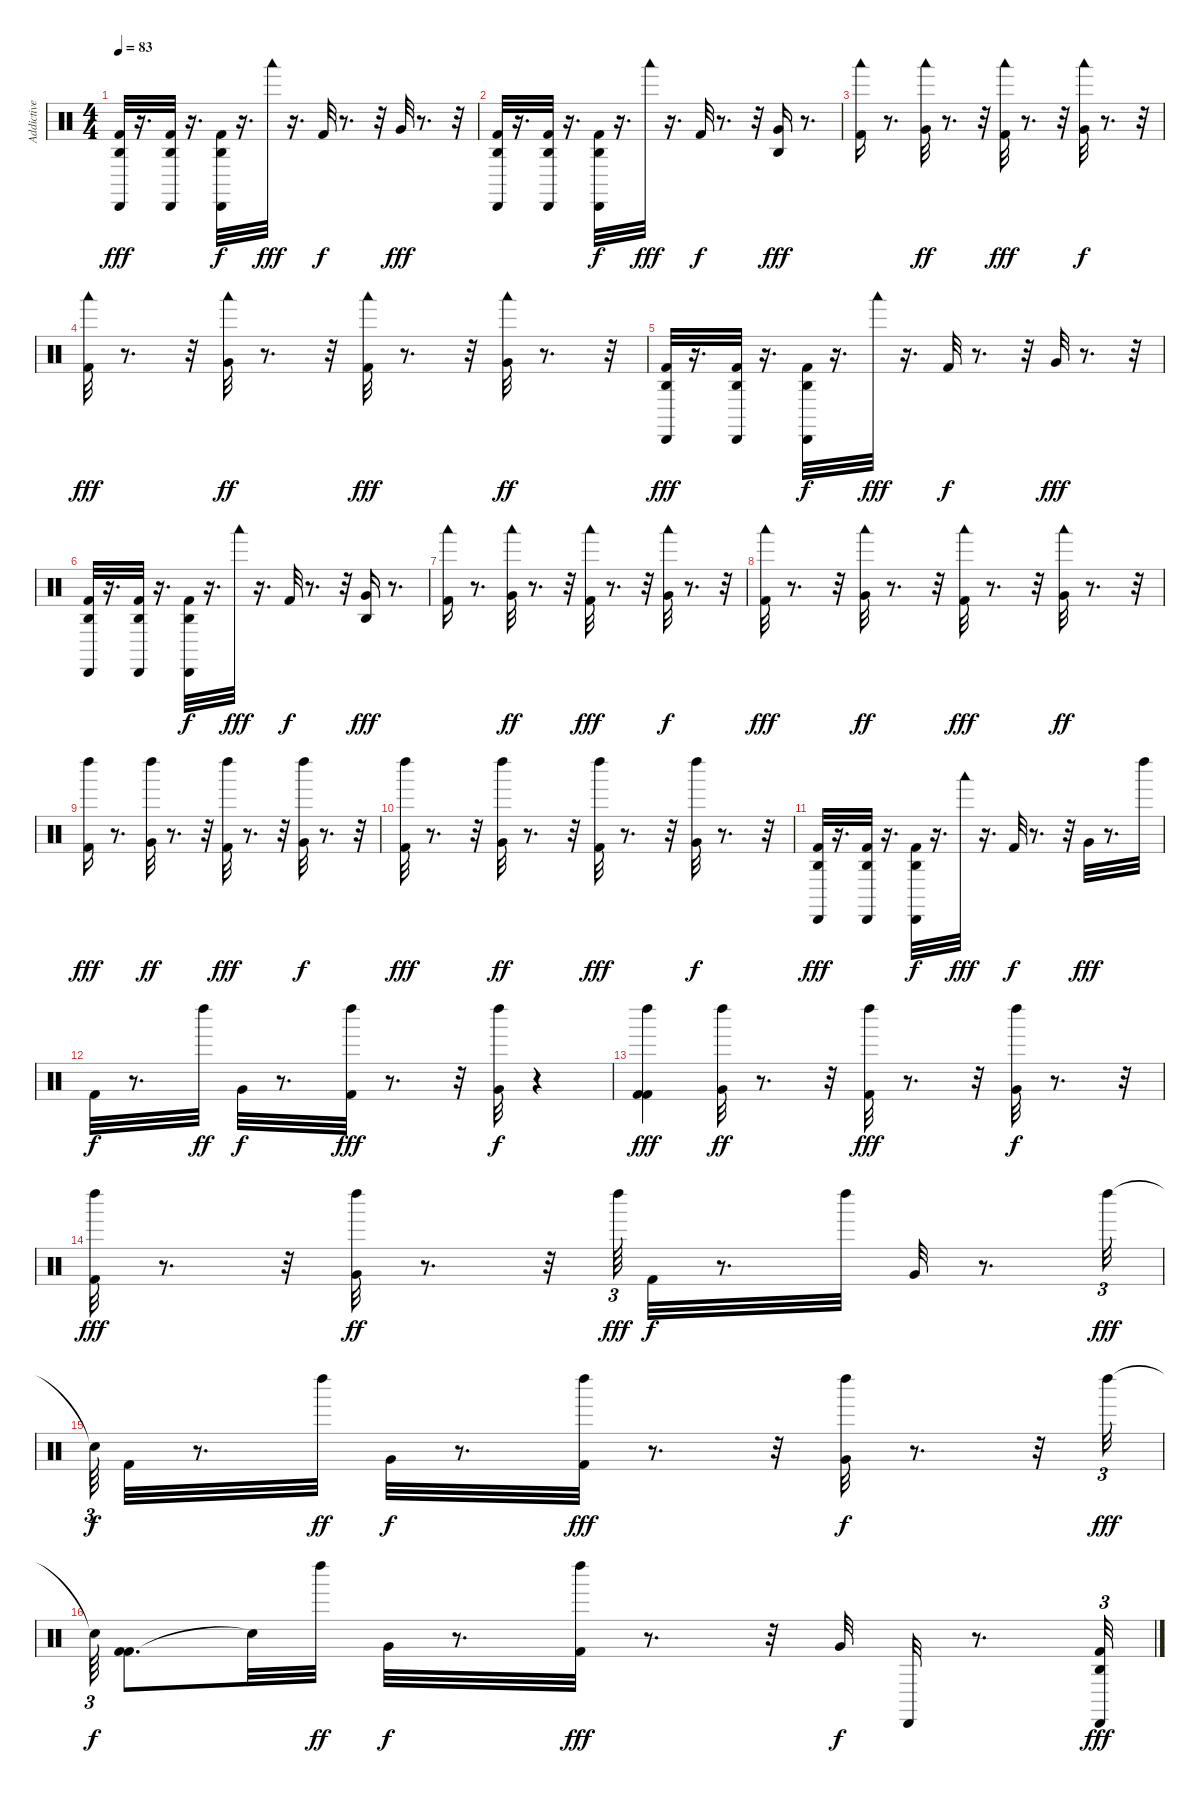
\track ("Addictive Drums 2 01" "Addictive ") {instrument percussion}
\staff {score}
\articulation defaults
\ts (4 4)
\tempo 83
\clef neutral
\ks c
("Kick (hit) 2" "Cabasa (hit)" "Agogo high (hit)").32{dy fff} r.16{d} ("Kick (hit) 2" "Cabasa (hit)" "Agogo high (hit)").32 r.16{d} ("Cabasa (hit)" "Kick (hit) 2" "Agogo high (hit)").32{dy f} r.16{d} "Woodblock low (hit)".32{dy fff} r.16{d} "Kick (hit) 2".32{dy f} r.8{d} r.32 "Very Low Tom (hit)".32{dy fff} r.8{d} r.32 |
("Kick (hit) 2" "Cabasa (hit)" "Agogo high (hit)").32 r.16{d} ("Kick (hit) 2" "Cabasa (hit)" "Agogo high (hit)").32 r.16{d} ("Cabasa (hit)" "Kick (hit) 2" "Agogo high (hit)").32{dy f} r.16{d} "Woodblock low (hit)".32{dy fff} r.16{d} "Kick (hit) 2".32{dy f} r.8{d} r.32 ("Very Low Tom (hit)" "Agogo high (hit)").16{dy fff} r.8{d} |
("Woodblock low (hit)" "Kick (hit) 2").16 r.8{d} ("Woodblock low (hit)" "Very Low Tom (hit)").32{dy ff} r.8{d} r.32 ("Kick (hit) 2" "Woodblock low (hit)").32{dy fff} r.8{d} r.32 ("Very Low Tom (hit)" "Woodblock low (hit)").32{dy f} r.8{d} r.32 |
("Woodblock low (hit)" "Kick (hit) 2").32{dy fff} r.8{d} r.32 ("Very Low Tom (hit)" "Woodblock low (hit)").32{dy ff} r.8{d} r.32 ("Kick (hit) 2" "Woodblock low (hit)").32{dy fff} r.8{d} r.32 ("Very Low Tom (hit)" "Woodblock low (hit)").32{dy ff} r.8{d} r.32 |
("Kick (hit) 2" "Cabasa (hit)" "Agogo high (hit)").32{dy fff} r.16{d} ("Kick (hit) 2" "Cabasa (hit)" "Agogo high (hit)").32 r.16{d} ("Cabasa (hit)" "Kick (hit) 2" "Agogo high (hit)").32{dy f} r.16{d} "Woodblock low (hit)".32{dy fff} r.16{d} "Kick (hit) 2".32{dy f} r.8{d} r.32 "Very Low Tom (hit)".32{dy fff} r.8{d} r.32 |
("Kick (hit) 2" "Cabasa (hit)" "Agogo high (hit)").32 r.16{d} ("Kick (hit) 2" "Cabasa (hit)" "Agogo high (hit)").32 r.16{d} ("Cabasa (hit)" "Kick (hit) 2" "Agogo high (hit)").32{dy f} r.16{d} "Woodblock low (hit)".32{dy fff} r.16{d} "Kick (hit) 2".32{dy f} r.8{d} r.32 ("Very Low Tom (hit)" "Agogo high (hit)").16{dy fff} r.8{d} |
("Woodblock low (hit)" "Kick (hit) 2").16 r.8{d} ("Woodblock low (hit)" "Very Low Tom (hit)").32{dy ff} r.8{d} r.32 ("Kick (hit) 2" "Woodblock low (hit)").32{dy fff} r.8{d} r.32 ("Very Low Tom (hit)" "Woodblock low (hit)").32{dy f} r.8{d} r.32 |
("Woodblock low (hit)" "Kick (hit) 2").32{dy fff} r.8{d} r.32 ("Very Low Tom (hit)" "Woodblock low (hit)").32{dy ff} r.8{d} r.32 ("Kick (hit) 2" "Woodblock low (hit)").32{dy fff} r.8{d} r.32 ("Very Low Tom (hit)" "Woodblock low (hit)").32{dy ff} r.8{d} r.32 |
("Left Maraca (hit)" "Kick (hit) 2").16{dy fff} r.8{d} ("Left Maraca (hit)" "Very Low Tom (hit)").32{dy ff} r.8{d} r.32 ("Left Maraca (hit)" "Kick (hit) 2").32{dy fff} r.8{d} r.32 ("Left Maraca (hit)" "Very Low Tom (hit)").32{dy f} r.8{d} r.32 |
("Left Maraca (hit)" "Kick (hit) 2").32{dy fff} r.8{d} r.32 ("Left Maraca (hit)" "Very Low Tom (hit)").32{dy ff} r.8{d} r.32 ("Left Maraca (hit)" "Kick (hit) 2").32{dy fff} r.8{d} r.32 ("Left Maraca (hit)" "Very Low Tom (hit)").32{dy f} r.8{d} r.32 |
("Kick (hit) 2" "Cabasa (hit)" "Agogo high (hit)").32{dy fff} r.16{d} ("Kick (hit) 2" "Cabasa (hit)" "Agogo high (hit)").32 r.16{d} ("Cabasa (hit)" "Kick (hit) 2" "Agogo high (hit)").32{dy f} r.16{d} "Woodblock low (hit)".32{dy fff} r.16{d} "Kick (hit) 2".32{dy f} r.8{d} r.32 "Very Low Tom (hit)".32{dy fff} r.8{d} "Left Maraca (hit)".32 |
"Kick (hit) 2".32{dy f} r.8{d} "Left Maraca (hit)".32{dy ff} "Very Low Tom (hit)".32{dy f} r.8{d} ("Left Maraca (hit)" "Kick (hit) 2").32{dy fff} r.8{d} r.32 ("Left Maraca (hit)" "Very Low Tom (hit)").32{dy f} r.4 |
("Kick (hit) 2" "Left Maraca (hit)" "Kick (hit) 2").4{dy fff} ("Left Maraca (hit)" "Very Low Tom (hit)").32{dy ff} r.8{d} r.32 ("Left Maraca (hit)" "Kick (hit) 2").32{dy fff} r.8{d} r.32 ("Left Maraca (hit)" "Very Low Tom (hit)").32{dy f} r.8{d} r.32 |
("Left Maraca (hit)" "Kick (hit) 2").32{dy fff} r.8{d} r.32 ("Left Maraca (hit)" "Very Low Tom (hit)").32{dy ff} r.8{d} r.32 "Left Maraca (hit)".64{tu (3 2) dy fff} "Kick (hit) 2".32{dy f} r.8{d} "Left Maraca (hit)".32 "Very Low Tom (hit)".32 r.8{d} "Left Maraca (hit)".32{tu (3 2) dy fff} |
"Snare (hit)"{t}.64{tu (3 2) dy f} "Kick (hit) 2".32 r.8{d} "Left Maraca (hit)".32{dy ff} "Very Low Tom (hit)".32{dy f} r.8{d} ("Left Maraca (hit)" "Kick (hit) 2").32{dy fff} r.8{d} r.32 ("Left Maraca (hit)" "Very Low Tom (hit)").32{dy f} r.8{d} r.32 "Left Maraca (hit)".32{tu (3 2) dy fff} |
"Snare (hit)"{t}.64{tu (3 2) dy f} ("Kick (hit) 2" "Kick (hit) 2").8{d} "Snare (hit)"{t}.32 "Left Maraca (hit)".32{dy ff} "Very Low Tom (hit)".32{dy f} r.8{d} ("Left Maraca (hit)" "Kick (hit) 2").32{dy fff} r.8{d} r.32 "Very Low Tom (hit)".32{dy f} "Cabasa (hit)".32 r.8{d} ("Kick (hit) 2" "Cabasa (hit)" "Agogo high (hit)").32{tu (3 2) dy fff}
